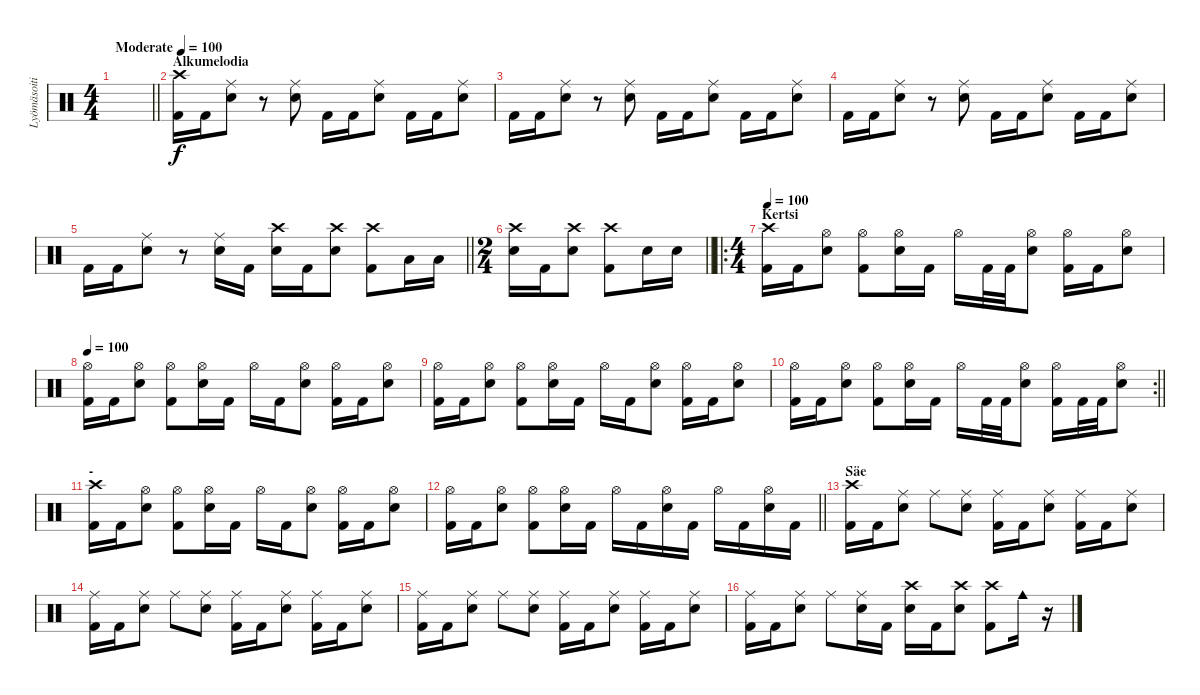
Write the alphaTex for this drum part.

\track ("Lyömäsoitin" "Lyömäsoiti") {instrument percussion}
\staff {score}
\articulation defaults
\ts (4 4)
\tempo (100 "Moderate")
\clef neutral
\barLineRight lightlight
\ks c
|
\section ("" "Alkumelodia")
("Crash high (hit)" "Kick (hit) 2").16 "Kick (hit) 2".16 ("Ride (middle)" "Snare (hit) 2").8 r.8 ("Ride (middle)" "Snare (hit) 2").8 "Kick (hit) 2".16 "Kick (hit) 2".16 ("Ride (middle)" "Snare (hit) 2").8 "Kick (hit) 2".16 "Kick (hit) 2".16 ("Ride (middle)" "Snare (hit) 2").8 |
"Kick (hit) 2".16 "Kick (hit) 2".16 ("Ride (middle)" "Snare (hit) 2").8 r.8 ("Ride (middle)" "Snare (hit) 2").8 "Kick (hit) 2".16 "Kick (hit) 2".16 ("Ride (middle)" "Snare (hit) 2").8 "Kick (hit) 2".16 "Kick (hit) 2".16 ("Ride (middle)" "Snare (hit) 2").8 |
"Kick (hit) 2".16 "Kick (hit) 2".16 ("Ride (middle)" "Snare (hit) 2").8 r.8 ("Ride (middle)" "Snare (hit) 2").8 "Kick (hit) 2".16 "Kick (hit) 2".16 ("Ride (middle)" "Snare (hit) 2").8 "Kick (hit) 2".16 "Kick (hit) 2".16 ("Ride (middle)" "Snare (hit) 2").8 |
\barLineRight lightlight "Kick (hit) 2".16 "Kick (hit) 2".16
("Ride (middle)" "Snare (hit) 2").8 r.8 ("Ride (middle)" "Snare (hit) 2").16 "Kick (hit) 2".16 ("Crash high (hit)" "Snare (hit) 2").16 "Kick (hit) 2".16 ("Crash high (hit)" "Snare (hit) 2").8 ("Crash high (hit)" "Kick (hit) 2").8 "Low Floor Tom (hit)".16 "Low Floor Tom (hit)".16 |
\ts (2 4)
\barLineRight lightlight
("Crash high (hit)" "Snare (hit) 2").16 "Kick (hit) 2".16 ("Crash high (hit)" "Snare (hit) 2").8 ("Crash high (hit)" "Kick (hit) 2").8 "Snare (hit) 2".16 "Snare (hit) 2".16 |
\ro
\ts (4 4)
\section ("" "Kertsi")
\tempo 100
("Crash high (hit)" "Kick (hit) 2").16 "Kick (hit) 2".16 ("Hi-Hat (open)" "Snare (hit) 2").8 ("Hi-Hat (open)" "Kick (hit) 2").8 ("Hi-Hat (open)" "Snare (hit) 2").16 "Kick (hit) 2".16 "Hi-Hat (open)".16 "Kick (hit) 2".32 "Kick (hit) 2".32 ("Hi-Hat (open)" "Snare (hit) 2").8 ("Hi-Hat (open)" "Kick (hit) 2").16 "Kick (hit) 2".16 ("Hi-Hat (open)" "Snare (hit) 2").8 |
\tempo 100
("Hi-Hat (open)" "Kick (hit) 2").16 "Kick (hit) 2".16 ("Hi-Hat (open)" "Snare (hit) 2").8 ("Hi-Hat (open)" "Kick (hit) 2").8 ("Hi-Hat (open)" "Snare (hit) 2").16 "Kick (hit) 2".16 "Hi-Hat (open)".16 "Kick (hit) 2".16 ("Hi-Hat (open)" "Snare (hit) 2").8 ("Hi-Hat (open)" "Kick (hit) 2").16 "Kick (hit) 2".16 ("Hi-Hat (open)" "Snare (hit) 2").8 |
("Hi-Hat (open)" "Kick (hit) 2").16 "Kick (hit) 2".16 ("Hi-Hat (open)" "Snare (hit) 2").8 ("Hi-Hat (open)" "Kick (hit) 2").8 ("Hi-Hat (open)" "Snare (hit) 2").16 "Kick (hit) 2".16 "Hi-Hat (open)".16 "Kick (hit) 2".16 ("Hi-Hat (open)" "Snare (hit) 2").8 ("Hi-Hat (open)" "Kick (hit) 2").16 "Kick (hit) 2".16 ("Hi-Hat (open)" "Snare (hit) 2").8 |
\rc 2
\barLineRight lightlight
("Hi-Hat (open)" "Kick (hit) 2").16 "Kick (hit) 2".16 ("Hi-Hat (open)" "Snare (hit) 2").8 ("Hi-Hat (open)" "Kick (hit) 2").8 ("Hi-Hat (open)" "Snare (hit) 2").16 "Kick (hit) 2".16 "Hi-Hat (open)".16 "Kick (hit) 2".32 "Kick (hit) 2".32 ("Hi-Hat (open)" "Snare (hit) 2").8 ("Hi-Hat (open)" "Kick (hit) 2").16 "Kick (hit) 2".32 "Kick (hit) 2".32 ("Hi-Hat (open)" "Snare (hit) 2").8 |
\section ("" "- ")
("Crash high (hit)" "Kick (hit) 2").16 "Kick (hit) 2".16 ("Hi-Hat (open)" "Snare (hit) 2").8 ("Hi-Hat (open)" "Kick (hit) 2").8 ("Hi-Hat (open)" "Snare (hit) 2").16 "Kick (hit) 2".16 "Hi-Hat (open)".16 "Kick (hit) 2".16 ("Hi-Hat (open)" "Snare (hit) 2").8 ("Hi-Hat (open)" "Kick (hit) 2").16 "Kick (hit) 2".16 ("Hi-Hat (open)" "Snare (hit) 2").8 |
\barLineRight lightlight
("Hi-Hat (open)" "Kick (hit) 2").16 "Kick (hit) 2".16 ("Hi-Hat (open)" "Snare (hit) 2").8 ("Hi-Hat (open)" "Kick (hit) 2").8 ("Hi-Hat (open)" "Snare (hit) 2").16 "Kick (hit) 2".16 "Hi-Hat (open)".16 "Kick (hit) 2".16 ("Hi-Hat (open)" "Snare (hit) 2").16 "Kick (hit) 2".16 "Hi-Hat (open)".16 "Kick (hit) 2".16 ("Hi-Hat (open)" "Snare (hit) 2").16 "Kick (hit) 2".16 |
\section ("" "Säe")
("Crash high (hit)" "Kick (hit) 2").16 "Kick (hit) 2".16 ("Ride (middle)" "Snare (hit) 2").8 "Ride (middle)".8 ("Ride (middle)" "Snare (hit) 2").8 ("Ride (middle)" "Kick (hit) 2").16 "Kick (hit) 2".16 ("Ride (middle)" "Snare (hit) 2").8 ("Ride (middle)" "Kick (hit) 2").16 "Kick (hit) 2".16 ("Ride (middle)" "Snare (hit) 2").8 |
("Ride (middle)" "Kick (hit) 2").16 "Kick (hit) 2".16 ("Ride (middle)" "Snare (hit) 2").8 "Ride (middle)".8 ("Ride (middle)" "Snare (hit) 2").8 ("Ride (middle)" "Kick (hit) 2").16 "Kick (hit) 2".16 ("Ride (middle)" "Snare (hit) 2").8 ("Ride (middle)" "Kick (hit) 2").16 "Kick (hit) 2".16 ("Ride (middle)" "Snare (hit) 2").8 |
("Ride (middle)" "Kick (hit) 2").16 "Kick (hit) 2".16 ("Ride (middle)" "Snare (hit) 2").8 "Ride (middle)".8 ("Ride (middle)" "Snare (hit) 2").8 ("Ride (middle)" "Kick (hit) 2").16 "Kick (hit) 2".16 ("Ride (middle)" "Snare (hit) 2").8 ("Ride (middle)" "Kick (hit) 2").16 "Kick (hit) 2".16 ("Ride (middle)" "Snare (hit) 2").8 |
("Ride (middle)" "Kick (hit) 2").16 "Kick (hit) 2".16 ("Ride (middle)" "Snare (hit) 2").8 "Ride (middle)".8 ("Ride (middle)" "Snare (hit) 2").16 "Kick (hit) 2".16 ("Crash high (hit)" "Snare (hit) 2").16 "Kick (hit) 2".16 ("Crash high (hit)" "Snare (hit) 2").8 ("Crash high (hit)" "Kick (hit) 2").8 "Cowbell medium (hit)".16 r.16
